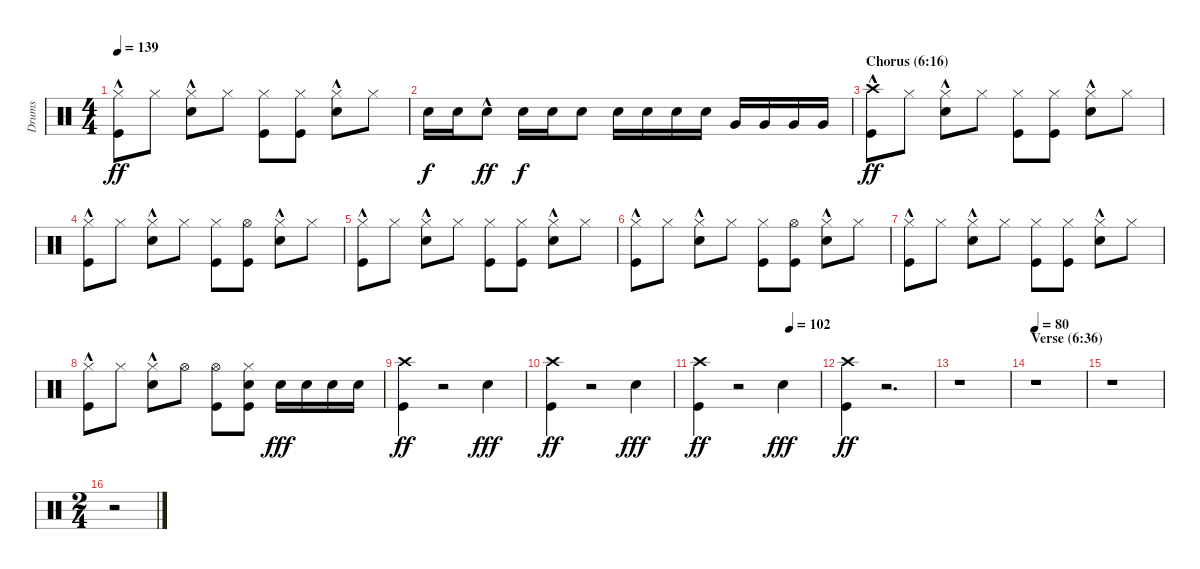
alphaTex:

\track ("Drums" "Drums") {instrument percussion}
\staff {score}
\articulation defaults
\ts (4 4)
\tempo 139
\clef neutral
\ks c
("Hi-Hat (closed)" "Kick (hit)"{hac}).8{dy ff} "Hi-Hat (closed)".8 ("Hi-Hat (closed)" "Snare (hit) 2"{hac}).8 "Hi-Hat (closed)".8 ("Hi-Hat (closed)" "Kick (hit)").8 ("Hi-Hat (closed)" "Kick (hit)").8 ("Hi-Hat (closed)" "Snare (hit) 2"{hac}).8 "Hi-Hat (closed)".8 |
"Snare (hit) 2".16{dy f} "Snare (hit) 2".16 "Snare (hit) 2"{hac}.8{dy ff} "Snare (hit) 2".16{dy f} "Snare (hit) 2".16 "Snare (hit) 2".8 "Snare (hit) 2".16 "Snare (hit) 2".16 "Snare (hit) 2".16 "Snare (hit) 2".16 "Very Low Tom (hit)".16 "Very Low Tom (hit)".16 "Very Low Tom (hit)".16 "Very Low Tom (hit)".16 |
\section ("" "Chorus (6:16)")
("Crash high (hit)" "Kick (hit)"{hac}).8{dy ff} "Hi-Hat (closed)".8 ("Hi-Hat (closed)" "Snare (hit) 2"{hac}).8 "Hi-Hat (closed)".8 ("Hi-Hat (closed)" "Kick (hit)").8 ("Hi-Hat (closed)" "Kick (hit)").8 ("Hi-Hat (closed)" "Snare (hit) 2"{hac}).8 "Hi-Hat (closed)".8 |
("Hi-Hat (closed)" "Kick (hit)"{hac}).8 "Hi-Hat (closed)".8 ("Hi-Hat (closed)" "Snare (hit) 2"{hac}).8 "Hi-Hat (closed)".8 ("Hi-Hat (closed)" "Kick (hit)").8 ("Hi-Hat (open)" "Kick (hit)").8 ("Hi-Hat (closed)" "Snare (hit) 2"{hac}).8 "Hi-Hat (closed)".8 |
("Hi-Hat (closed)" "Kick (hit)"{hac}).8 "Hi-Hat (closed)".8 ("Hi-Hat (closed)" "Snare (hit) 2"{hac}).8 "Hi-Hat (closed)".8 ("Hi-Hat (closed)" "Kick (hit)").8 ("Hi-Hat (closed)" "Kick (hit)").8 ("Hi-Hat (closed)" "Snare (hit) 2"{hac}).8 "Hi-Hat (closed)".8 |
("Hi-Hat (closed)" "Kick (hit)"{hac}).8 "Hi-Hat (closed)".8 ("Hi-Hat (closed)" "Snare (hit) 2"{hac}).8 "Hi-Hat (closed)".8 ("Hi-Hat (closed)" "Kick (hit)").8 ("Hi-Hat (open)" "Kick (hit)").8 ("Hi-Hat (closed)" "Snare (hit) 2"{hac}).8 "Hi-Hat (closed)".8 |
("Hi-Hat (closed)" "Kick (hit)"{hac}).8 "Hi-Hat (closed)".8 ("Hi-Hat (closed)" "Snare (hit) 2"{hac}).8 "Hi-Hat (closed)".8 ("Hi-Hat (closed)" "Kick (hit)").8 ("Hi-Hat (closed)" "Kick (hit)").8 ("Hi-Hat (closed)" "Snare (hit) 2"{hac}).8 "Hi-Hat (closed)".8 |
("Hi-Hat (closed)" "Kick (hit)"{hac}).8 "Hi-Hat (closed)".8 ("Hi-Hat (closed)" "Snare (hit) 2"{hac}).8 "Hi-Hat (open)".8 ("Hi-Hat (open)" "Kick (hit)").8 ("Hi-Hat (closed)" "Snare (hit) 2" "Kick (hit)").8 "Snare (hit) 2".16{dy fff} "Snare (hit) 2".16 "Snare (hit) 2".16 "Snare (hit) 2".16 |
("Crash high (hit)" "Kick (hit)").4{dy ff} r.2 "Snare (hit) 2".4{dy fff} |
("Crash high (hit)" "Kick (hit)").4{dy ff} r.2 "Snare (hit) 2".4{dy fff} |
\tempo (102 0.75)
("Crash high (hit)" "Kick (hit)").4{dy ff} r.2 "Snare (hit) 2".4{dy fff} |
("Kick (hit)" "Crash high (hit)").4{dy ff} r.2{d} |
r.1 |
\section ("" "Verse (6:36)")
\tempo 80
r.1 |
r.1 |
\ts (2 4)
r.2
